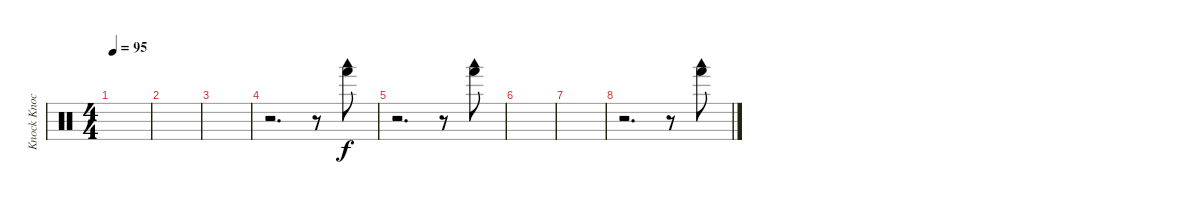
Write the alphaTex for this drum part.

\track ("Knock Knock" "Knock Knoc") {instrument percussion}
\staff {score}
\articulation defaults
\ts (4 4)
\tempo 95
\clef neutral
\ks c
|
|
|
r.2{d} r.8 ("Hand (hit)" "Woodblock low (hit)").8 |
r.2{d} r.8 ("Hand (hit)" "Woodblock low (hit)").8 |
|
|
r.2{d} r.8 ("Hand (hit)" "Woodblock low (hit)").8
